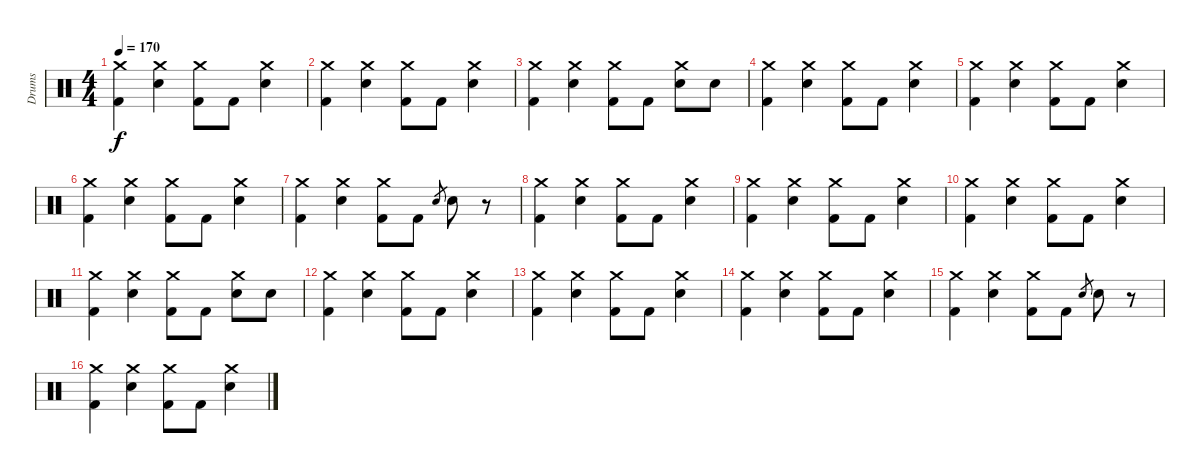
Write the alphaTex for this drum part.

\track ("Drums" "Drums") {instrument percussion}
\staff {score}
\articulation defaults
\ts (4 4)
\tempo 170
\clef neutral
\ks c
("Crash medium (hit)" "Kick (hit) 2").4{dy f} ("Crash medium (hit)" "Electric Snare (hit)").4 ("Crash medium (hit)" "Kick (hit) 2").8 "Kick (hit) 2".8 ("Crash medium (hit)" "Electric Snare (hit)").4 |
("Crash medium (hit)" "Kick (hit) 2").4 ("Crash medium (hit)" "Electric Snare (hit)").4 ("Crash medium (hit)" "Kick (hit) 2").8 "Kick (hit) 2".8 ("Crash medium (hit)" "Electric Snare (hit)").4 |
("Crash medium (hit)" "Kick (hit) 2").4 ("Crash medium (hit)" "Electric Snare (hit)").4 ("Crash medium (hit)" "Kick (hit) 2").8 "Kick (hit) 2".8 ("Crash medium (hit)" "Electric Snare (hit)").8 "Electric Snare (hit)".8 |
("Crash medium (hit)" "Kick (hit) 2").4 ("Crash medium (hit)" "Electric Snare (hit)").4 ("Crash medium (hit)" "Kick (hit) 2").8 "Kick (hit) 2".8 ("Crash medium (hit)" "Electric Snare (hit)").4 |
("Crash medium (hit)" "Kick (hit) 2").4 ("Crash medium (hit)" "Electric Snare (hit)").4 ("Crash medium (hit)" "Kick (hit) 2").8 "Kick (hit) 2".8 ("Crash medium (hit)" "Electric Snare (hit)").4 |
("Crash medium (hit)" "Kick (hit) 2").4 ("Crash medium (hit)" "Electric Snare (hit)").4 ("Crash medium (hit)" "Kick (hit) 2").8 "Kick (hit) 2".8 ("Crash medium (hit)" "Electric Snare (hit)").4 |
("Crash medium (hit)" "Kick (hit) 2").4 ("Crash medium (hit)" "Electric Snare (hit)").4 ("Crash medium (hit)" "Kick (hit) 2").8 "Kick (hit) 2".8 "Electric Snare (hit)".8{gr} "Electric Snare (hit)".8 r.8 |
("Crash medium (hit)" "Kick (hit) 2").4 ("Crash medium (hit)" "Electric Snare (hit)").4 ("Crash medium (hit)" "Kick (hit) 2").8 "Kick (hit) 2".8 ("Crash medium (hit)" "Electric Snare (hit)").4 |
("Crash medium (hit)" "Kick (hit) 2").4 ("Crash medium (hit)" "Electric Snare (hit)").4 ("Crash medium (hit)" "Kick (hit) 2").8 "Kick (hit) 2".8 ("Crash medium (hit)" "Electric Snare (hit)").4 |
("Crash medium (hit)" "Kick (hit) 2").4 ("Crash medium (hit)" "Electric Snare (hit)").4 ("Crash medium (hit)" "Kick (hit) 2").8 "Kick (hit) 2".8 ("Crash medium (hit)" "Electric Snare (hit)").4 |
("Crash medium (hit)" "Kick (hit) 2").4 ("Crash medium (hit)" "Electric Snare (hit)").4 ("Crash medium (hit)" "Kick (hit) 2").8 "Kick (hit) 2".8 ("Crash medium (hit)" "Electric Snare (hit)").8 "Electric Snare (hit)".8 |
("Crash medium (hit)" "Kick (hit) 2").4 ("Crash medium (hit)" "Electric Snare (hit)").4 ("Crash medium (hit)" "Kick (hit) 2").8 "Kick (hit) 2".8 ("Crash medium (hit)" "Electric Snare (hit)").4 |
("Crash medium (hit)" "Kick (hit) 2").4 ("Crash medium (hit)" "Electric Snare (hit)").4 ("Crash medium (hit)" "Kick (hit) 2").8 "Kick (hit) 2".8 ("Crash medium (hit)" "Electric Snare (hit)").4 |
("Crash medium (hit)" "Kick (hit) 2").4 ("Crash medium (hit)" "Electric Snare (hit)").4 ("Crash medium (hit)" "Kick (hit) 2").8 "Kick (hit) 2".8 ("Crash medium (hit)" "Electric Snare (hit)").4 |
("Crash medium (hit)" "Kick (hit) 2").4 ("Crash medium (hit)" "Electric Snare (hit)").4 ("Crash medium (hit)" "Kick (hit) 2").8 "Kick (hit) 2".8 "Electric Snare (hit)".8{gr} "Electric Snare (hit)".8 r.8 |
("Crash medium (hit)" "Kick (hit) 2").4 ("Crash medium (hit)" "Electric Snare (hit)").4 ("Crash medium (hit)" "Kick (hit) 2").8 "Kick (hit) 2".8 ("Crash medium (hit)" "Electric Snare (hit)").4
